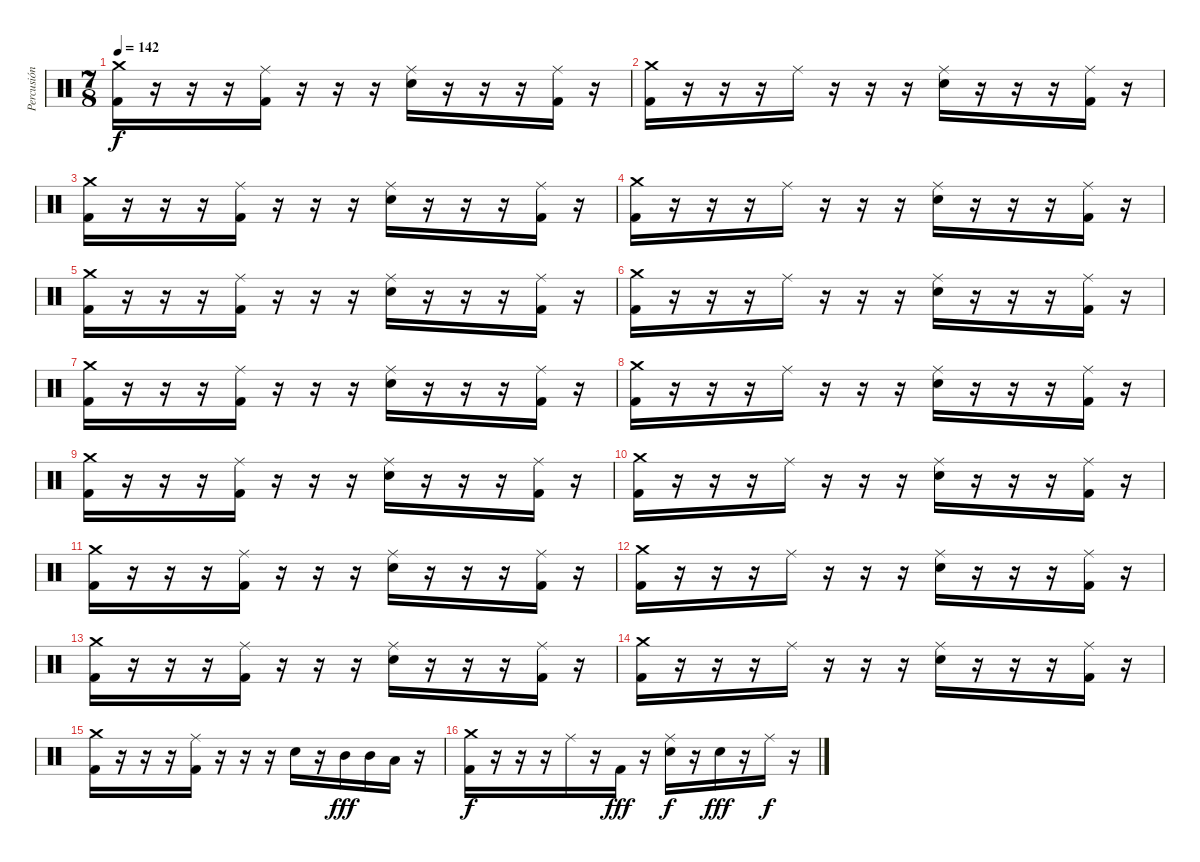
\track ("Percusión" "Percusión") {instrument percussion}
\staff {score}
\articulation defaults
\ts (7 8)
\tempo 142
\clef neutral
\ks c
("Crash medium (hit)" "Kick (hit) 2").16{dy f} r.16 r.16 r.16 ("Ride (middle)" "Kick (hit) 2").16 r.16 r.16 r.16 ("Ride (middle)" "Electric Snare (hit)").16 r.16 r.16 r.16 ("Ride (middle)" "Kick (hit) 2").16 r.16 |
("Crash medium (hit)" "Kick (hit) 2").16 r.16 r.16 r.16 "Ride (middle)".16 r.16 r.16 r.16 ("Ride (middle)" "Electric Snare (hit)").16 r.16 r.16 r.16 ("Ride (middle)" "Kick (hit) 2").16 r.16 |
("Crash medium (hit)" "Kick (hit) 2").16 r.16 r.16 r.16 ("Ride (middle)" "Kick (hit) 2").16 r.16 r.16 r.16 ("Ride (middle)" "Electric Snare (hit)").16 r.16 r.16 r.16 ("Ride (middle)" "Kick (hit) 2").16 r.16 |
("Crash medium (hit)" "Kick (hit) 2").16 r.16 r.16 r.16 "Ride (middle)".16 r.16 r.16 r.16 ("Ride (middle)" "Electric Snare (hit)").16 r.16 r.16 r.16 ("Ride (middle)" "Kick (hit) 2").16 r.16 |
("Crash medium (hit)" "Kick (hit) 2").16 r.16 r.16 r.16 ("Ride (middle)" "Kick (hit) 2").16 r.16 r.16 r.16 ("Ride (middle)" "Electric Snare (hit)").16 r.16 r.16 r.16 ("Ride (middle)" "Kick (hit) 2").16 r.16 |
("Crash medium (hit)" "Kick (hit) 2").16 r.16 r.16 r.16 "Ride (middle)".16 r.16 r.16 r.16 ("Ride (middle)" "Electric Snare (hit)").16 r.16 r.16 r.16 ("Ride (middle)" "Kick (hit) 2").16 r.16 |
("Crash medium (hit)" "Kick (hit) 2").16 r.16 r.16 r.16 ("Ride (middle)" "Kick (hit) 2").16 r.16 r.16 r.16 ("Ride (middle)" "Electric Snare (hit)").16 r.16 r.16 r.16 ("Ride (middle)" "Kick (hit) 2").16 r.16 |
("Crash medium (hit)" "Kick (hit) 2").16 r.16 r.16 r.16 "Ride (middle)".16 r.16 r.16 r.16 ("Ride (middle)" "Electric Snare (hit)").16 r.16 r.16 r.16 ("Ride (middle)" "Kick (hit) 2").16 r.16 |
("Crash medium (hit)" "Kick (hit) 2").16 r.16 r.16 r.16 ("Ride (middle)" "Kick (hit) 2").16 r.16 r.16 r.16 ("Ride (middle)" "Electric Snare (hit)").16 r.16 r.16 r.16 ("Ride (middle)" "Kick (hit) 2").16 r.16 |
("Crash medium (hit)" "Kick (hit) 2").16 r.16 r.16 r.16 "Ride (middle)".16 r.16 r.16 r.16 ("Ride (middle)" "Electric Snare (hit)").16 r.16 r.16 r.16 ("Ride (middle)" "Kick (hit) 2").16 r.16 |
("Crash medium (hit)" "Kick (hit) 2").16 r.16 r.16 r.16 ("Ride (middle)" "Kick (hit) 2").16 r.16 r.16 r.16 ("Ride (middle)" "Electric Snare (hit)").16 r.16 r.16 r.16 ("Ride (middle)" "Kick (hit) 2").16 r.16 |
("Crash medium (hit)" "Kick (hit) 2").16 r.16 r.16 r.16 "Ride (middle)".16 r.16 r.16 r.16 ("Ride (middle)" "Electric Snare (hit)").16 r.16 r.16 r.16 ("Ride (middle)" "Kick (hit) 2").16 r.16 |
("Crash medium (hit)" "Kick (hit) 2").16 r.16 r.16 r.16 ("Ride (middle)" "Kick (hit) 2").16 r.16 r.16 r.16 ("Ride (middle)" "Electric Snare (hit)").16 r.16 r.16 r.16 ("Ride (middle)" "Kick (hit) 2").16 r.16 |
("Crash medium (hit)" "Kick (hit) 2").16 r.16 r.16 r.16 "Ride (middle)".16 r.16 r.16 r.16 ("Ride (middle)" "Electric Snare (hit)").16 r.16 r.16 r.16 ("Ride (middle)" "Kick (hit) 2").16 r.16 |
("Crash medium (hit)" "Kick (hit) 2").16 r.16 r.16 r.16 ("Ride (middle)" "Kick (hit) 2").16 r.16 r.16 r.16 "Electric Snare (hit)".16 r.16 "Mid Tom (hit)".16{dy fff} "Mid Tom (hit)".16 "Low Tom (hit)".16 r.16 |
("Crash medium (hit)" "Kick (hit) 2").16{dy f} r.16 r.16 r.16 "Ride (middle)".16 r.16 "Kick (hit) 2".16{dy fff} r.16 ("Ride (middle)" "Electric Snare (hit)").16{dy f} r.16 "Electric Snare (hit)".16{dy fff} r.16 "Ride (middle)".16{dy f} r.16
